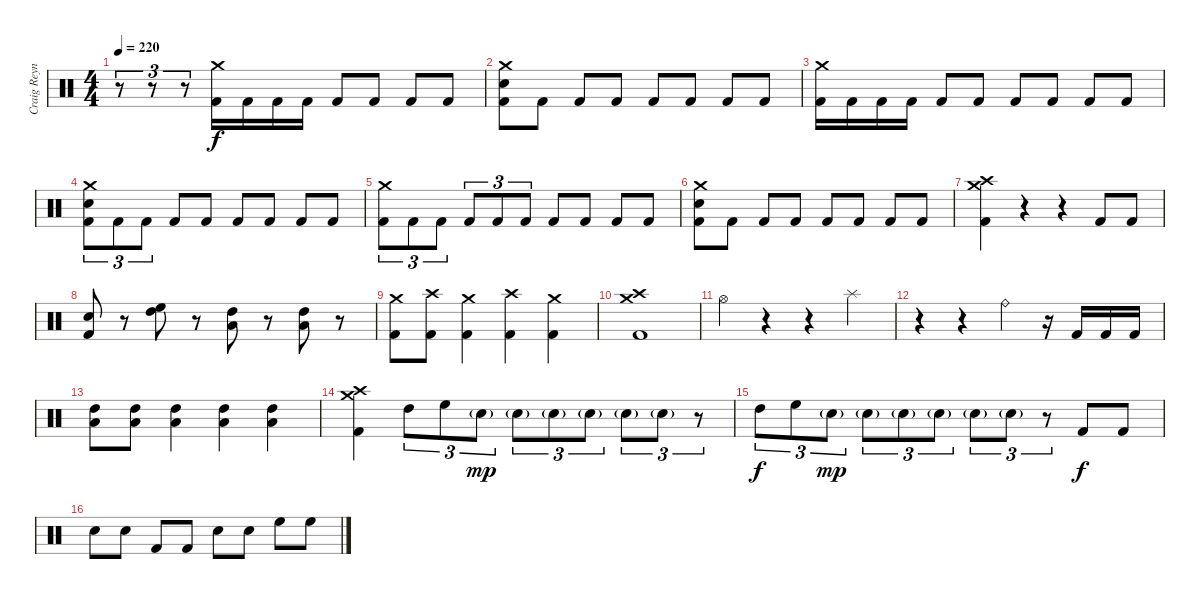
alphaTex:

\track ("Craig Reynolds" "Craig Reyn") {instrument percussion}
\staff {score}
\articulation defaults
\ts (4 4)
\tempo 220
\clef neutral
\ks c
r.8{tu (3 2) dy f} r.8{tu (3 2)} r.8{tu (3 2)} ("Crash medium (hit)" "Kick (hit) 2").16 "Kick (hit) 2".16 "Kick (hit) 2".16 "Kick (hit) 2".16 "Kick (hit) 2".8 "Kick (hit) 2".8 "Kick (hit) 2".8 "Kick (hit) 2".8 |
("Crash medium (hit)" "Electric Snare (hit)" "Kick (hit) 2").8 "Kick (hit) 2".8 "Kick (hit) 2".8 "Kick (hit) 2".8 "Kick (hit) 2".8 "Kick (hit) 2".8 "Kick (hit) 2".8 "Kick (hit) 2".8 |
("Crash medium (hit)" "Kick (hit) 2").16 "Kick (hit) 2".16 "Kick (hit) 2".16 "Kick (hit) 2".16 "Kick (hit) 2".8 "Kick (hit) 2".8 "Kick (hit) 2".8 "Kick (hit) 2".8 "Kick (hit) 2".8 "Kick (hit) 2".8 |
("Crash medium (hit)" "Electric Snare (hit)" "Kick (hit) 2").8{tu (3 2)} "Kick (hit) 2".8{tu (3 2)} "Kick (hit) 2".8{tu (3 2)} "Kick (hit) 2".8 "Kick (hit) 2".8 "Kick (hit) 2".8 "Kick (hit) 2".8 "Kick (hit) 2".8 "Kick (hit) 2".8 |
("Crash medium (hit)" "Kick (hit) 2").8{tu (3 2)} "Kick (hit) 2".8{tu (3 2)} "Kick (hit) 2".8{tu (3 2)} "Kick (hit) 2".8{tu (3 2)} "Kick (hit) 2".8{tu (3 2)} "Kick (hit) 2".8{tu (3 2)} "Kick (hit) 2".8 "Kick (hit) 2".8 "Kick (hit) 2".8 "Kick (hit) 2".8 |
("Crash medium (hit)" "Electric Snare (hit)" "Kick (hit) 2").8 "Kick (hit) 2".8 "Kick (hit) 2".8 "Kick (hit) 2".8 "Kick (hit) 2".8 "Kick (hit) 2".8 "Kick (hit) 2".8 "Kick (hit) 2".8 |
("Crash high (hit)" "Crash medium (hit)" "Kick (hit) 2").4 r.4 r.4 "Kick (hit) 2".8 "Kick (hit) 2".8 |
("Electric Snare (hit)" "Kick (hit) 2").8 r.8 ("High Floor Tom (hit)" "High Tom (hit)").8 r.8 ("High Tom (hit)" "Low Tom (hit)").8 r.8 ("High Tom (hit)" "Low Tom (hit)").8 r.8 |
("Crash medium (hit)" "Kick (hit) 2").8 ("Crash high (hit)" "Kick (hit) 2").8 ("Crash medium (hit)" "Kick (hit) 2").4 ("Crash high (hit)" "Kick (hit) 2").4 ("Crash medium (hit)" "Kick (hit) 2").4 |
("Crash high (hit)" "Crash medium (hit)" "Kick (hit) 2").1 |
"Hi-Hat (open)".4 r.4 r.4 "Splash (hit)".4 |
r.4 r.4 "Ride (bell)".4 r.16 "Kick (hit) 2".16 "Kick (hit) 2".16 "Kick (hit) 2".16 |
("High Tom (hit)" "Low Tom (hit)").8 ("High Tom (hit)" "Low Tom (hit)").8 ("High Tom (hit)" "Low Tom (hit)").4 ("High Tom (hit)" "Low Tom (hit)").4 ("High Tom (hit)" "Low Tom (hit)").4 |
("Crash high (hit)" "Crash medium (hit)" "Kick (hit) 2").4 "High Tom (hit)".8{tu (3 2)} "High Floor Tom (hit)".8{tu (3 2)} "Electric Snare (hit)"{g}.8{tu (3 2) dy mp} "Electric Snare (hit)"{g}.8{tu (3 2)} "Electric Snare (hit)"{g}.8{tu (3 2)} "Electric Snare (hit)"{g}.8{tu (3 2)} "Electric Snare (hit)"{g}.8{tu (3 2)} "Electric Snare (hit)"{g}.8{tu (3 2)} r.8{tu (3 2)} |
"High Tom (hit)".8{tu (3 2) dy f} "High Floor Tom (hit)".8{tu (3 2)} "Electric Snare (hit)"{g}.8{tu (3 2) dy mp} "Electric Snare (hit)"{g}.8{tu (3 2)} "Electric Snare (hit)"{g}.8{tu (3 2)} "Electric Snare (hit)"{g}.8{tu (3 2)} "Electric Snare (hit)"{g}.8{tu (3 2)} "Electric Snare (hit)"{g}.8{tu (3 2)} r.8{tu (3 2)} "Kick (hit) 2".8{dy f} "Kick (hit) 2".8 |
"Electric Snare (hit)".8 "Electric Snare (hit)".8 "Kick (hit) 2".8 "Kick (hit) 2".8 "Electric Snare (hit)".8 "Electric Snare (hit)".8 "High Floor Tom (hit)".8 "High Floor Tom (hit)".8
